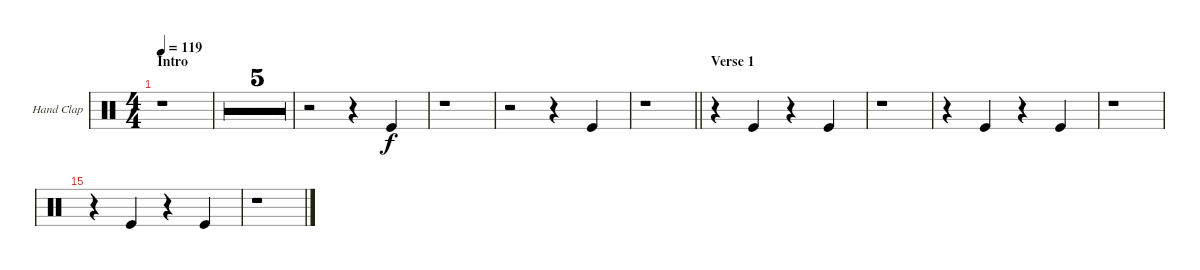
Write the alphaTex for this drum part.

\defaultSystemsLayout 4
\bracketExtendMode groupsimilarinstruments
\useSystemSignSeparator
\multiBarRest
\multiTrackTrackNamePolicy allsystems
\firstSystemTrackNameMode fullname
\firstSystemTrackNameOrientation horizontal
\otherSystemsTrackNameOrientation horizontal
\defaultBarNumberDisplay FirstOfSystem
\track ("Hand Clap" "H-Clap") {multiBarRest instrument percussion}
\staff {score}
\articulation defaults
\ts (4 4)
\section ("" "Intro")
\tempo 119
\clef neutral
\ks aminor
r.1{dy f} |
r.1 |
r.1 |
r.1 |
r.1 |
r.1 |
r.2 r.4 "Kick (hit)".4 |
r.1 |
r.2 r.4 "Kick (hit)".4 |
\barLineRight lightlight
r.1 |
\section ("" "Verse 1")
r.4 "Kick (hit)".4 r.4 "Kick (hit)".4 |
r.1 |
r.4 "Kick (hit)".4 r.4 "Kick (hit)".4 |
r.1 |
r.4 "Kick (hit)".4 r.4 "Kick (hit)".4 |
r.1
